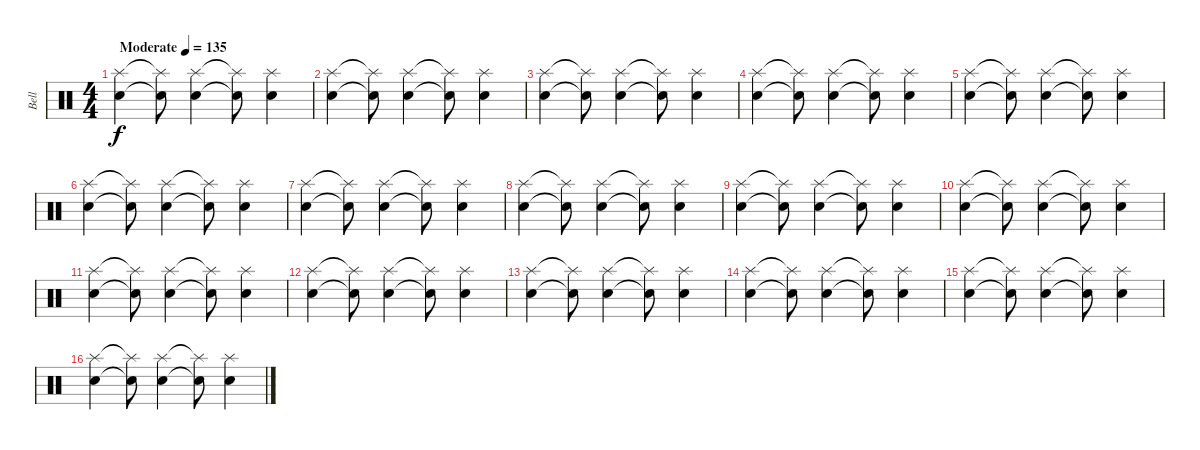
\track ("Bell" "Bell") {instrument percussion}
\staff {score}
\articulation defaults
\ts (4 4)
\tempo (135 "Moderate")
\clef neutral
\ks c
("Splash (hit)" "Snare (hit) 2").4{dy f} ("Splash (hit)"{t} "Snare (hit) 2"{t}).8 ("Splash (hit)" "Snare (hit) 2").4 ("Splash (hit)"{t} "Snare (hit) 2"{t}).8 ("Splash (hit)" "Snare (hit) 2").4 |
("Splash (hit)" "Snare (hit) 2").4 ("Splash (hit)"{t} "Snare (hit) 2"{t}).8 ("Splash (hit)" "Snare (hit) 2").4 ("Splash (hit)"{t} "Snare (hit) 2"{t}).8 ("Splash (hit)" "Snare (hit) 2").4 |
("Splash (hit)" "Snare (hit) 2").4 ("Splash (hit)"{t} "Snare (hit) 2"{t}).8 ("Splash (hit)" "Snare (hit) 2").4 ("Splash (hit)"{t} "Snare (hit) 2"{t}).8 ("Splash (hit)" "Snare (hit) 2").4 |
("Splash (hit)" "Snare (hit) 2").4 ("Splash (hit)"{t} "Snare (hit) 2"{t}).8 ("Splash (hit)" "Snare (hit) 2").4 ("Splash (hit)"{t} "Snare (hit) 2"{t}).8 ("Splash (hit)" "Snare (hit) 2").4 |
("Splash (hit)" "Snare (hit) 2").4 ("Splash (hit)"{t} "Snare (hit) 2"{t}).8 ("Splash (hit)" "Snare (hit) 2").4 ("Splash (hit)"{t} "Snare (hit) 2"{t}).8 ("Splash (hit)" "Snare (hit) 2").4 |
("Splash (hit)" "Snare (hit) 2").4 ("Splash (hit)"{t} "Snare (hit) 2"{t}).8 ("Splash (hit)" "Snare (hit) 2").4 ("Splash (hit)"{t} "Snare (hit) 2"{t}).8 ("Splash (hit)" "Snare (hit) 2").4 |
("Splash (hit)" "Snare (hit) 2").4 ("Splash (hit)"{t} "Snare (hit) 2"{t}).8 ("Splash (hit)" "Snare (hit) 2").4 ("Splash (hit)"{t} "Snare (hit) 2"{t}).8 ("Splash (hit)" "Snare (hit) 2").4 |
("Splash (hit)" "Snare (hit) 2").4 ("Splash (hit)"{t} "Snare (hit) 2"{t}).8 ("Splash (hit)" "Snare (hit) 2").4 ("Splash (hit)"{t} "Snare (hit) 2"{t}).8 ("Splash (hit)" "Snare (hit) 2").4 |
("Splash (hit)" "Snare (hit) 2").4 ("Splash (hit)"{t} "Snare (hit) 2"{t}).8 ("Splash (hit)" "Snare (hit) 2").4 ("Splash (hit)"{t} "Snare (hit) 2"{t}).8 ("Splash (hit)" "Snare (hit) 2").4 |
("Splash (hit)" "Snare (hit) 2").4 ("Splash (hit)"{t} "Snare (hit) 2"{t}).8 ("Splash (hit)" "Snare (hit) 2").4 ("Splash (hit)"{t} "Snare (hit) 2"{t}).8 ("Splash (hit)" "Snare (hit) 2").4 |
("Splash (hit)" "Snare (hit) 2").4 ("Splash (hit)"{t} "Snare (hit) 2"{t}).8 ("Splash (hit)" "Snare (hit) 2").4 ("Splash (hit)"{t} "Snare (hit) 2"{t}).8 ("Splash (hit)" "Snare (hit) 2").4 |
("Splash (hit)" "Snare (hit) 2").4 ("Splash (hit)"{t} "Snare (hit) 2"{t}).8 ("Splash (hit)" "Snare (hit) 2").4 ("Splash (hit)"{t} "Snare (hit) 2"{t}).8 ("Splash (hit)" "Snare (hit) 2").4 |
("Splash (hit)" "Snare (hit) 2").4 ("Splash (hit)"{t} "Snare (hit) 2"{t}).8 ("Splash (hit)" "Snare (hit) 2").4 ("Splash (hit)"{t} "Snare (hit) 2"{t}).8 ("Splash (hit)" "Snare (hit) 2").4 |
("Splash (hit)" "Snare (hit) 2").4 ("Splash (hit)"{t} "Snare (hit) 2"{t}).8 ("Splash (hit)" "Snare (hit) 2").4 ("Splash (hit)"{t} "Snare (hit) 2"{t}).8 ("Splash (hit)" "Snare (hit) 2").4 |
("Splash (hit)" "Snare (hit) 2").4 ("Splash (hit)"{t} "Snare (hit) 2"{t}).8 ("Splash (hit)" "Snare (hit) 2").4 ("Splash (hit)"{t} "Snare (hit) 2"{t}).8 ("Splash (hit)" "Snare (hit) 2").4 |
("Splash (hit)" "Snare (hit) 2").4 ("Splash (hit)"{t} "Snare (hit) 2"{t}).8 ("Splash (hit)" "Snare (hit) 2").4 ("Splash (hit)"{t} "Snare (hit) 2"{t}).8 ("Splash (hit)" "Snare (hit) 2").4
